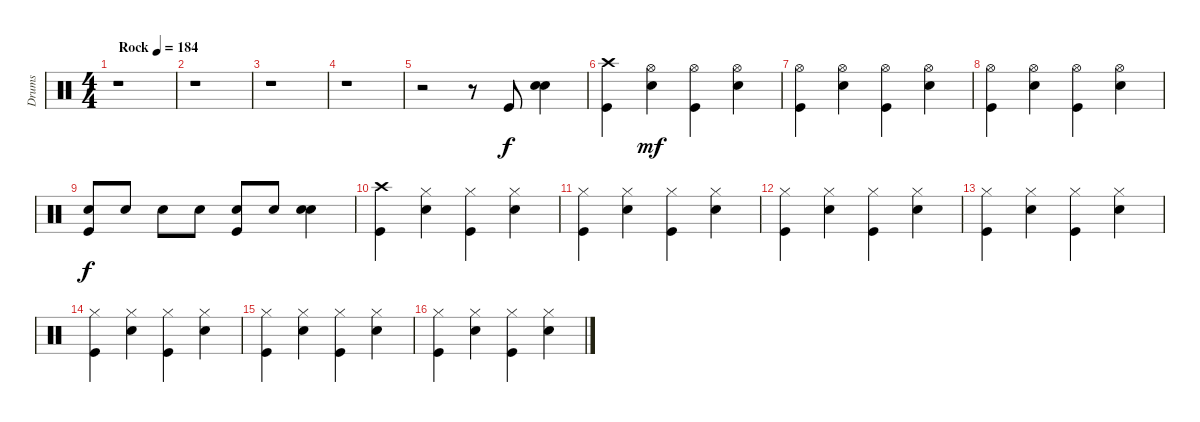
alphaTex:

\track ("Drums" "Drums") {instrument percussion}
\staff {score}
\articulation defaults
\ts (4 4)
\tempo (184 "Rock")
\clef neutral
\ks c
r.1{dy f} |
r.1 |
r.1 |
r.1 |
r.2 r.8 "Kick (hit)".8 ("Electric Snare (hit)" "Electric Snare (hit)").4 |
("Crash high (hit)" "Kick (hit)").4 ("Hi-Hat (open)" "Electric Snare (hit)").4{dy mf} ("Hi-Hat (open)" "Kick (hit)").4 ("Hi-Hat (open)" "Electric Snare (hit)").4 |
("Hi-Hat (open)" "Kick (hit)").4 ("Hi-Hat (open)" "Electric Snare (hit)").4 ("Hi-Hat (open)" "Kick (hit)").4 ("Hi-Hat (open)" "Electric Snare (hit)").4 |
("Hi-Hat (open)" "Kick (hit)").4 ("Hi-Hat (open)" "Electric Snare (hit)").4 ("Hi-Hat (open)" "Kick (hit)").4 ("Hi-Hat (open)" "Electric Snare (hit)").4 |
("Electric Snare (hit)" "Kick (hit)").8{dy f} "Electric Snare (hit)".8 "Electric Snare (hit)".8 "Electric Snare (hit)".8 ("Electric Snare (hit)" "Kick (hit)").8 "Electric Snare (hit)".8 ("Electric Snare (hit)" "Electric Snare (hit)").4 |
("Crash high (hit)" "Kick (hit)").4 ("Hi-Hat (closed)" "Electric Snare (hit)").4 ("Hi-Hat (closed)" "Kick (hit)").4 ("Hi-Hat (closed)" "Electric Snare (hit)").4 |
("Hi-Hat (closed)" "Kick (hit)").4 ("Hi-Hat (closed)" "Electric Snare (hit)").4 ("Hi-Hat (closed)" "Kick (hit)").4 ("Hi-Hat (closed)" "Electric Snare (hit)").4 |
("Hi-Hat (closed)" "Kick (hit)").4 ("Hi-Hat (closed)" "Electric Snare (hit)").4 ("Hi-Hat (closed)" "Kick (hit)").4 ("Hi-Hat (closed)" "Electric Snare (hit)").4 |
("Hi-Hat (closed)" "Kick (hit)").4 ("Hi-Hat (closed)" "Electric Snare (hit)").4 ("Hi-Hat (closed)" "Kick (hit)").4 ("Hi-Hat (closed)" "Electric Snare (hit)").4 |
("Hi-Hat (closed)" "Kick (hit)").4 ("Hi-Hat (closed)" "Electric Snare (hit)").4 ("Hi-Hat (closed)" "Kick (hit)").4 ("Hi-Hat (closed)" "Electric Snare (hit)").4 |
("Hi-Hat (closed)" "Kick (hit)").4 ("Hi-Hat (closed)" "Electric Snare (hit)").4 ("Hi-Hat (closed)" "Kick (hit)").4 ("Hi-Hat (closed)" "Electric Snare (hit)").4 |
("Hi-Hat (closed)" "Kick (hit)").4 ("Hi-Hat (closed)" "Electric Snare (hit)").4 ("Hi-Hat (closed)" "Kick (hit)").4 ("Hi-Hat (closed)" "Electric Snare (hit)").4
